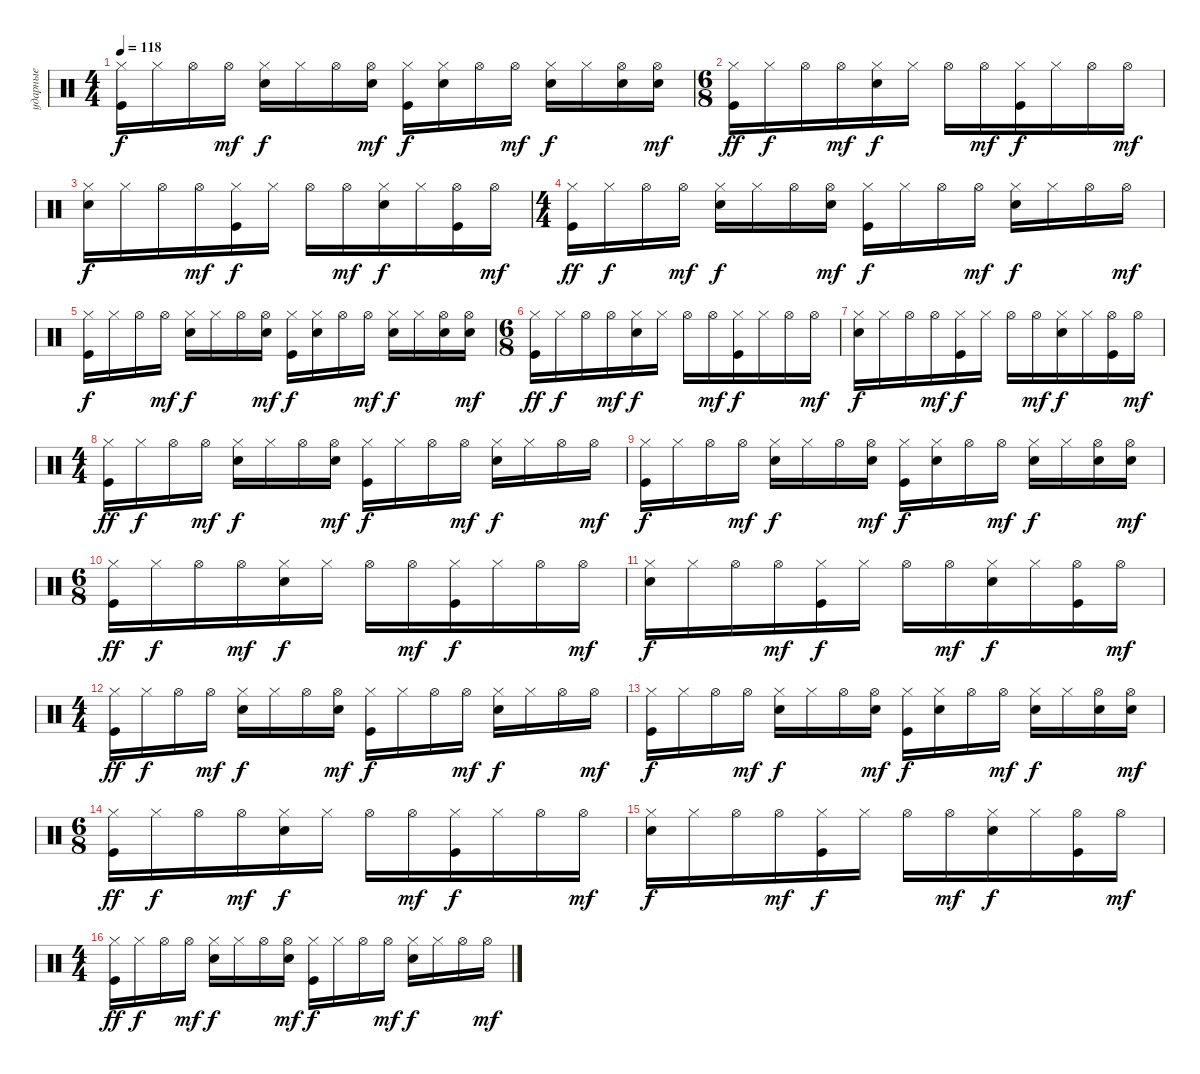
\track ("ударные" "ударные") {instrument percussion}
\staff {score}
\articulation defaults
\ts (4 4)
\tempo 118
\clef neutral
\ks c
("Kick (hit)" "Hi-Hat (closed)").16{dy f} "Hi-Hat (closed)".16 "Hi-Hat (open)".16 "Hi-Hat (open)".16{dy mf} ("Electric Snare (hit)" "Hi-Hat (closed)").16{dy f} "Hi-Hat (closed)".16 "Hi-Hat (open)".16 ("Hi-Hat (open)" "Electric Snare (hit)").16{dy mf} ("Hi-Hat (closed)" "Kick (hit)").16{dy f} ("Electric Snare (hit)" "Hi-Hat (closed)").16 "Hi-Hat (open)".16 "Hi-Hat (open)".16{dy mf} ("Electric Snare (hit)" "Hi-Hat (closed)").16{dy f} "Hi-Hat (closed)".16 ("Electric Snare (hit)" "Hi-Hat (open)").16 ("Electric Snare (hit)" "Hi-Hat (open)").16{dy mf} |
\ts (6 8)
("Hi-Hat (closed)" "Kick (hit)").16{dy ff} "Hi-Hat (closed)".16{dy f} "Hi-Hat (open)".16 "Hi-Hat (open)".16{dy mf} ("Electric Snare (hit)" "Hi-Hat (closed)").16{dy f} "Hi-Hat (closed)".16 "Hi-Hat (open)".16 "Hi-Hat (open)".16{dy mf} ("Kick (hit)" "Hi-Hat (closed)").16{dy f} "Hi-Hat (closed)".16 "Hi-Hat (open)".16 "Hi-Hat (open)".16{dy mf} |
("Electric Snare (hit)" "Hi-Hat (closed)").16{dy f} "Hi-Hat (closed)".16 "Hi-Hat (open)".16 "Hi-Hat (open)".16{dy mf} ("Kick (hit)" "Hi-Hat (closed)").16{dy f} "Hi-Hat (closed)".16 "Hi-Hat (open)".16 "Hi-Hat (open)".16{dy mf} ("Electric Snare (hit)" "Hi-Hat (closed)").16{dy f} "Hi-Hat (closed)".16 ("Kick (hit)" "Hi-Hat (open)").16 "Hi-Hat (open)".16{dy mf} |
\ts (4 4)
("Kick (hit)" "Hi-Hat (closed)").16{dy ff} "Hi-Hat (closed)".16{dy f} "Hi-Hat (open)".16 "Hi-Hat (open)".16{dy mf} ("Electric Snare (hit)" "Hi-Hat (closed)").16{dy f} "Hi-Hat (closed)".16 "Hi-Hat (open)".16 ("Hi-Hat (open)" "Electric Snare (hit)").16{dy mf} ("Hi-Hat (closed)" "Kick (hit)").16{dy f} "Hi-Hat (closed)".16 "Hi-Hat (open)".16 "Hi-Hat (open)".16{dy mf} ("Electric Snare (hit)" "Hi-Hat (closed)").16{dy f} "Hi-Hat (closed)".16 "Hi-Hat (open)".16 "Hi-Hat (open)".16{dy mf} |
("Kick (hit)" "Hi-Hat (closed)").16{dy f} "Hi-Hat (closed)".16 "Hi-Hat (open)".16 "Hi-Hat (open)".16{dy mf} ("Electric Snare (hit)" "Hi-Hat (closed)").16{dy f} "Hi-Hat (closed)".16 "Hi-Hat (open)".16 ("Hi-Hat (open)" "Electric Snare (hit)").16{dy mf} ("Hi-Hat (closed)" "Kick (hit)").16{dy f} ("Electric Snare (hit)" "Hi-Hat (closed)").16 "Hi-Hat (open)".16 "Hi-Hat (open)".16{dy mf} ("Electric Snare (hit)" "Hi-Hat (closed)").16{dy f} "Hi-Hat (closed)".16 ("Electric Snare (hit)" "Hi-Hat (open)").16 ("Electric Snare (hit)" "Hi-Hat (open)").16{dy mf} |
\ts (6 8)
("Hi-Hat (closed)" "Kick (hit)").16{dy ff} "Hi-Hat (closed)".16{dy f} "Hi-Hat (open)".16 "Hi-Hat (open)".16{dy mf} ("Electric Snare (hit)" "Hi-Hat (closed)").16{dy f} "Hi-Hat (closed)".16 "Hi-Hat (open)".16 "Hi-Hat (open)".16{dy mf} ("Kick (hit)" "Hi-Hat (closed)").16{dy f} "Hi-Hat (closed)".16 "Hi-Hat (open)".16 "Hi-Hat (open)".16{dy mf} |
("Electric Snare (hit)" "Hi-Hat (closed)").16{dy f} "Hi-Hat (closed)".16 "Hi-Hat (open)".16 "Hi-Hat (open)".16{dy mf} ("Kick (hit)" "Hi-Hat (closed)").16{dy f} "Hi-Hat (closed)".16 "Hi-Hat (open)".16 "Hi-Hat (open)".16{dy mf} ("Electric Snare (hit)" "Hi-Hat (closed)").16{dy f} "Hi-Hat (closed)".16 ("Kick (hit)" "Hi-Hat (open)").16 "Hi-Hat (open)".16{dy mf} |
\ts (4 4)
("Kick (hit)" "Hi-Hat (closed)").16{dy ff} "Hi-Hat (closed)".16{dy f} "Hi-Hat (open)".16 "Hi-Hat (open)".16{dy mf} ("Electric Snare (hit)" "Hi-Hat (closed)").16{dy f} "Hi-Hat (closed)".16 "Hi-Hat (open)".16 ("Hi-Hat (open)" "Electric Snare (hit)").16{dy mf} ("Hi-Hat (closed)" "Kick (hit)").16{dy f} "Hi-Hat (closed)".16 "Hi-Hat (open)".16 "Hi-Hat (open)".16{dy mf} ("Electric Snare (hit)" "Hi-Hat (closed)").16{dy f} "Hi-Hat (closed)".16 "Hi-Hat (open)".16 "Hi-Hat (open)".16{dy mf} |
("Kick (hit)" "Hi-Hat (closed)").16{dy f} "Hi-Hat (closed)".16 "Hi-Hat (open)".16 "Hi-Hat (open)".16{dy mf} ("Electric Snare (hit)" "Hi-Hat (closed)").16{dy f} "Hi-Hat (closed)".16 "Hi-Hat (open)".16 ("Hi-Hat (open)" "Electric Snare (hit)").16{dy mf} ("Hi-Hat (closed)" "Kick (hit)").16{dy f} ("Electric Snare (hit)" "Hi-Hat (closed)").16 "Hi-Hat (open)".16 "Hi-Hat (open)".16{dy mf} ("Electric Snare (hit)" "Hi-Hat (closed)").16{dy f} "Hi-Hat (closed)".16 ("Electric Snare (hit)" "Hi-Hat (open)").16 ("Electric Snare (hit)" "Hi-Hat (open)").16{dy mf} |
\ts (6 8)
("Hi-Hat (closed)" "Kick (hit)").16{dy ff} "Hi-Hat (closed)".16{dy f} "Hi-Hat (open)".16 "Hi-Hat (open)".16{dy mf} ("Electric Snare (hit)" "Hi-Hat (closed)").16{dy f} "Hi-Hat (closed)".16 "Hi-Hat (open)".16 "Hi-Hat (open)".16{dy mf} ("Kick (hit)" "Hi-Hat (closed)").16{dy f} "Hi-Hat (closed)".16 "Hi-Hat (open)".16 "Hi-Hat (open)".16{dy mf} |
("Electric Snare (hit)" "Hi-Hat (closed)").16{dy f} "Hi-Hat (closed)".16 "Hi-Hat (open)".16 "Hi-Hat (open)".16{dy mf} ("Kick (hit)" "Hi-Hat (closed)").16{dy f} "Hi-Hat (closed)".16 "Hi-Hat (open)".16 "Hi-Hat (open)".16{dy mf} ("Electric Snare (hit)" "Hi-Hat (closed)").16{dy f} "Hi-Hat (closed)".16 ("Kick (hit)" "Hi-Hat (open)").16 "Hi-Hat (open)".16{dy mf} |
\ts (4 4)
("Kick (hit)" "Hi-Hat (closed)").16{dy ff} "Hi-Hat (closed)".16{dy f} "Hi-Hat (open)".16 "Hi-Hat (open)".16{dy mf} ("Electric Snare (hit)" "Hi-Hat (closed)").16{dy f} "Hi-Hat (closed)".16 "Hi-Hat (open)".16 ("Hi-Hat (open)" "Electric Snare (hit)").16{dy mf} ("Hi-Hat (closed)" "Kick (hit)").16{dy f} "Hi-Hat (closed)".16 "Hi-Hat (open)".16 "Hi-Hat (open)".16{dy mf} ("Electric Snare (hit)" "Hi-Hat (closed)").16{dy f} "Hi-Hat (closed)".16 "Hi-Hat (open)".16 "Hi-Hat (open)".16{dy mf} |
("Kick (hit)" "Hi-Hat (closed)").16{dy f} "Hi-Hat (closed)".16 "Hi-Hat (open)".16 "Hi-Hat (open)".16{dy mf} ("Electric Snare (hit)" "Hi-Hat (closed)").16{dy f} "Hi-Hat (closed)".16 "Hi-Hat (open)".16 ("Hi-Hat (open)" "Electric Snare (hit)").16{dy mf} ("Hi-Hat (closed)" "Kick (hit)").16{dy f} ("Electric Snare (hit)" "Hi-Hat (closed)").16 "Hi-Hat (open)".16 "Hi-Hat (open)".16{dy mf} ("Electric Snare (hit)" "Hi-Hat (closed)").16{dy f} "Hi-Hat (closed)".16 ("Electric Snare (hit)" "Hi-Hat (open)").16 ("Electric Snare (hit)" "Hi-Hat (open)").16{dy mf} |
\ts (6 8)
("Hi-Hat (closed)" "Kick (hit)").16{dy ff} "Hi-Hat (closed)".16{dy f} "Hi-Hat (open)".16 "Hi-Hat (open)".16{dy mf} ("Electric Snare (hit)" "Hi-Hat (closed)").16{dy f} "Hi-Hat (closed)".16 "Hi-Hat (open)".16 "Hi-Hat (open)".16{dy mf} ("Kick (hit)" "Hi-Hat (closed)").16{dy f} "Hi-Hat (closed)".16 "Hi-Hat (open)".16 "Hi-Hat (open)".16{dy mf} |
("Electric Snare (hit)" "Hi-Hat (closed)").16{dy f} "Hi-Hat (closed)".16 "Hi-Hat (open)".16 "Hi-Hat (open)".16{dy mf} ("Kick (hit)" "Hi-Hat (closed)").16{dy f} "Hi-Hat (closed)".16 "Hi-Hat (open)".16 "Hi-Hat (open)".16{dy mf} ("Electric Snare (hit)" "Hi-Hat (closed)").16{dy f} "Hi-Hat (closed)".16 ("Kick (hit)" "Hi-Hat (open)").16 "Hi-Hat (open)".16{dy mf} |
\ts (4 4)
("Kick (hit)" "Hi-Hat (closed)").16{dy ff} "Hi-Hat (closed)".16{dy f} "Hi-Hat (open)".16 "Hi-Hat (open)".16{dy mf} ("Electric Snare (hit)" "Hi-Hat (closed)").16{dy f} "Hi-Hat (closed)".16 "Hi-Hat (open)".16 ("Hi-Hat (open)" "Electric Snare (hit)").16{dy mf} ("Hi-Hat (closed)" "Kick (hit)").16{dy f} "Hi-Hat (closed)".16 "Hi-Hat (open)".16 "Hi-Hat (open)".16{dy mf} ("Electric Snare (hit)" "Hi-Hat (closed)").16{dy f} "Hi-Hat (closed)".16 "Hi-Hat (open)".16 "Hi-Hat (open)".16{dy mf}
